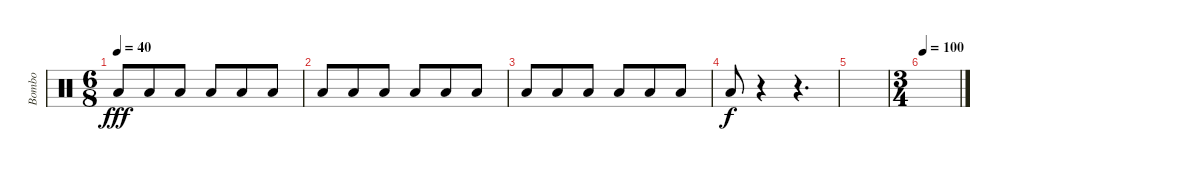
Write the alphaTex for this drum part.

\track ("Bombo" "Bombo") {instrument percussion}
\staff {score}
\articulation defaults
\ts (6 8)
\tempo 40
\clef neutral
\ks c "Low Floor Tom (hit)".8{dy fff} "Low Floor Tom (hit)".8 "Low Floor Tom (hit)".8 "Low Floor Tom (hit)".8 "Low Floor Tom (hit)".8 "Low Floor Tom (hit)".8
|
"Low Floor Tom (hit)".8 "Low Floor Tom (hit)".8 "Low Floor Tom (hit)".8 "Low Floor Tom (hit)".8 "Low Floor Tom (hit)".8 "Low Floor Tom (hit)".8 |
"Low Floor Tom (hit)".8 "Low Floor Tom (hit)".8 "Low Floor Tom (hit)".8 "Low Floor Tom (hit)".8 "Low Floor Tom (hit)".8 "Low Floor Tom (hit)".8 |
"Low Floor Tom (hit)".8{dy f} r.4 r.4{d} |
|
\ts (3 4)
\tempo 100
